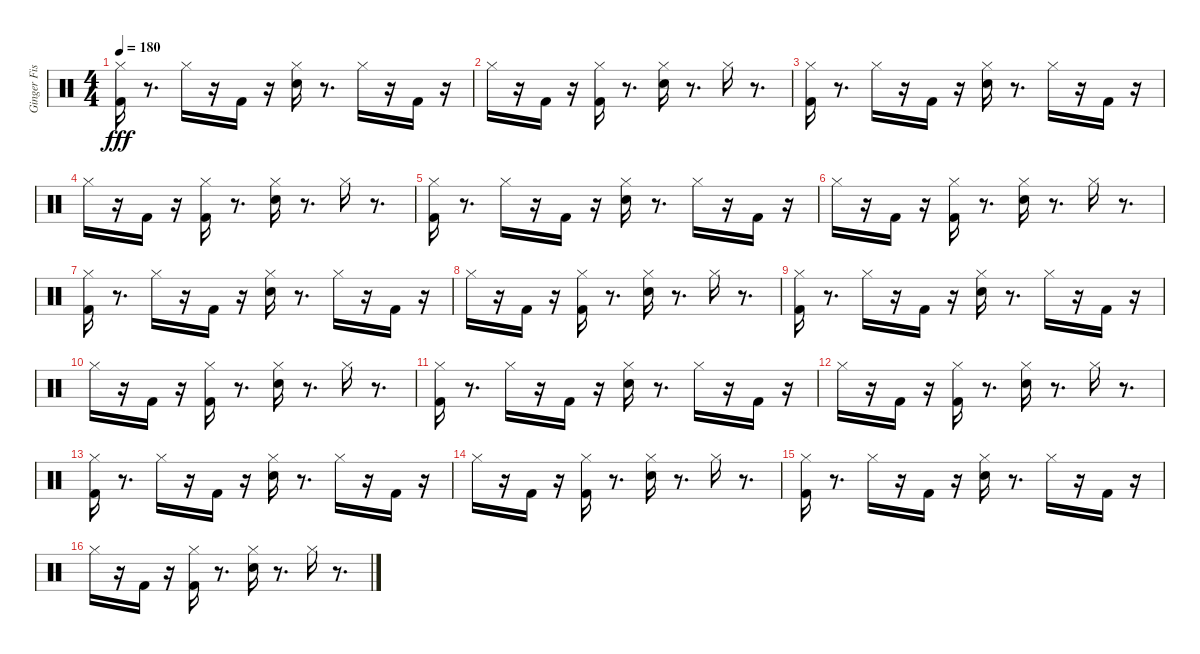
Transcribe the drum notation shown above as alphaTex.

\track ("Ginger Fish" "Ginger Fis") {instrument percussion}
\staff {score}
\articulation defaults
\ts (4 4)
\tempo 180
\clef neutral
\ks c
("Kick (hit) 2" "Hi-Hat (closed)").16{dy fff} r.8{d} "Hi-Hat (closed)".16 r.16 "Kick (hit) 2".16 r.16 ("Electric Snare (hit)" "Hi-Hat (closed)").16 r.8{d} "Hi-Hat (closed)".16 r.16 "Kick (hit) 2".16 r.16 |
"Hi-Hat (closed)".16 r.16 "Kick (hit) 2".16 r.16 ("Hi-Hat (closed)" "Kick (hit) 2").16 r.8{d} ("Hi-Hat (closed)" "Electric Snare (hit)").16 r.8{d} "Hi-Hat (closed)".16 r.8{d} |
("Kick (hit) 2" "Hi-Hat (closed)").16 r.8{d} "Hi-Hat (closed)".16 r.16 "Kick (hit) 2".16 r.16 ("Electric Snare (hit)" "Hi-Hat (closed)").16 r.8{d} "Hi-Hat (closed)".16 r.16 "Kick (hit) 2".16 r.16 |
"Hi-Hat (closed)".16 r.16 "Kick (hit) 2".16 r.16 ("Hi-Hat (closed)" "Kick (hit) 2").16 r.8{d} ("Hi-Hat (closed)" "Electric Snare (hit)").16 r.8{d} "Hi-Hat (closed)".16 r.8{d} |
("Kick (hit) 2" "Hi-Hat (closed)").16 r.8{d} "Hi-Hat (closed)".16 r.16 "Kick (hit) 2".16 r.16 ("Electric Snare (hit)" "Hi-Hat (closed)").16 r.8{d} "Hi-Hat (closed)".16 r.16 "Kick (hit) 2".16 r.16 |
"Hi-Hat (closed)".16 r.16 "Kick (hit) 2".16 r.16 ("Hi-Hat (closed)" "Kick (hit) 2").16 r.8{d} ("Hi-Hat (closed)" "Electric Snare (hit)").16 r.8{d} "Hi-Hat (closed)".16 r.8{d} |
("Kick (hit) 2" "Hi-Hat (closed)").16 r.8{d} "Hi-Hat (closed)".16 r.16 "Kick (hit) 2".16 r.16 ("Electric Snare (hit)" "Hi-Hat (closed)").16 r.8{d} "Hi-Hat (closed)".16 r.16 "Kick (hit) 2".16 r.16 |
"Hi-Hat (closed)".16 r.16 "Kick (hit) 2".16 r.16 ("Hi-Hat (closed)" "Kick (hit) 2").16 r.8{d} ("Hi-Hat (closed)" "Electric Snare (hit)").16 r.8{d} "Hi-Hat (closed)".16 r.8{d} |
("Kick (hit) 2" "Hi-Hat (closed)").16 r.8{d} "Hi-Hat (closed)".16 r.16 "Kick (hit) 2".16 r.16 ("Electric Snare (hit)" "Hi-Hat (closed)").16 r.8{d} "Hi-Hat (closed)".16 r.16 "Kick (hit) 2".16 r.16 |
"Hi-Hat (closed)".16 r.16 "Kick (hit) 2".16 r.16 ("Hi-Hat (closed)" "Kick (hit) 2").16 r.8{d} ("Hi-Hat (closed)" "Electric Snare (hit)").16 r.8{d} "Hi-Hat (closed)".16 r.8{d} |
("Kick (hit) 2" "Hi-Hat (closed)").16 r.8{d} "Hi-Hat (closed)".16 r.16 "Kick (hit) 2".16 r.16 ("Electric Snare (hit)" "Hi-Hat (closed)").16 r.8{d} "Hi-Hat (closed)".16 r.16 "Kick (hit) 2".16 r.16 |
"Hi-Hat (closed)".16 r.16 "Kick (hit) 2".16 r.16 ("Hi-Hat (closed)" "Kick (hit) 2").16 r.8{d} ("Hi-Hat (closed)" "Electric Snare (hit)").16 r.8{d} "Hi-Hat (closed)".16 r.8{d} |
("Kick (hit) 2" "Hi-Hat (closed)").16 r.8{d} "Hi-Hat (closed)".16 r.16 "Kick (hit) 2".16 r.16 ("Electric Snare (hit)" "Hi-Hat (closed)").16 r.8{d} "Hi-Hat (closed)".16 r.16 "Kick (hit) 2".16 r.16 |
"Hi-Hat (closed)".16 r.16 "Kick (hit) 2".16 r.16 ("Hi-Hat (closed)" "Kick (hit) 2").16 r.8{d} ("Hi-Hat (closed)" "Electric Snare (hit)").16 r.8{d} "Hi-Hat (closed)".16 r.8{d} |
("Kick (hit) 2" "Hi-Hat (closed)").16 r.8{d} "Hi-Hat (closed)".16 r.16 "Kick (hit) 2".16 r.16 ("Electric Snare (hit)" "Hi-Hat (closed)").16 r.8{d} "Hi-Hat (closed)".16 r.16 "Kick (hit) 2".16 r.16 |
"Hi-Hat (closed)".16 r.16 "Kick (hit) 2".16 r.16 ("Hi-Hat (closed)" "Kick (hit) 2").16 r.8{d} ("Hi-Hat (closed)" "Electric Snare (hit)").16 r.8{d} "Hi-Hat (closed)".16 r.8{d}
